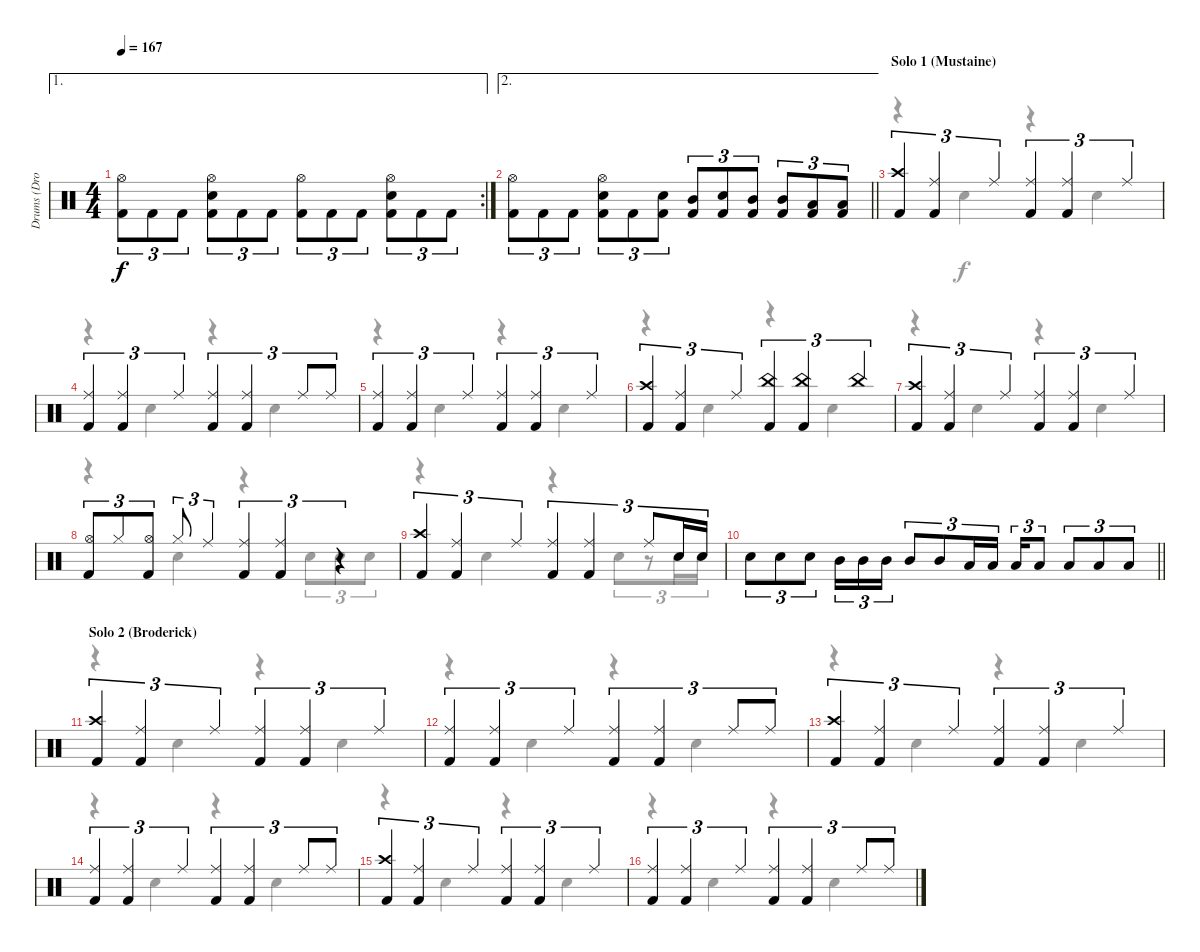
\track ("Drums (Drover)" "Drums (Dro") {instrument percussion}
\staff {score}
\articulation defaults
\voice
\ae 1
\rc 2
\ts (4 4)
\tempo 167
\clef neutral
\ks c
("Hi-Hat (open)" "Kick (hit) 2").8{tu (3 2) dy f} "Kick (hit) 2".8{tu (3 2)} "Kick (hit) 2".8{tu (3 2)} ("Hi-Hat (open)" "Electric Snare (hit)" "Kick (hit) 2").8{tu (3 2)} "Kick (hit) 2".8{tu (3 2)} "Kick (hit) 2".8{tu (3 2)} ("Hi-Hat (open)" "Kick (hit) 2").8{tu (3 2)} "Kick (hit) 2".8{tu (3 2)} "Kick (hit) 2".8{tu (3 2)} ("Hi-Hat (open)" "Electric Snare (hit)" "Kick (hit) 2").8{tu (3 2)} "Kick (hit) 2".8{tu (3 2)} "Kick (hit) 2".8{tu (3 2)} |
\ae 2
\barLineRight lightlight
("Hi-Hat (open)" "Kick (hit) 2").8{tu (3 2)} "Kick (hit) 2".8{tu (3 2)} "Kick (hit) 2".8{tu (3 2)} ("Hi-Hat (open)" "Electric Snare (hit)" "Kick (hit) 2").8{tu (3 2)} "Kick (hit) 2".8{tu (3 2)} ("Electric Snare (hit)" "Kick (hit) 2").8{tu (3 2)} ("Mid Tom (hit)" "Kick (hit) 2").8{tu (3 2)} ("Electric Snare (hit)" "Kick (hit) 2").8{tu (3 2)} ("Mid Tom (hit)" "Kick (hit) 2").8{tu (3 2)} ("Mid Tom (hit)" "Kick (hit) 2").8{tu (3 2)} ("Low Tom (hit)" "Kick (hit) 2").8{tu (3 2)} ("Low Tom (hit)" "Kick (hit) 2").8{tu (3 2)} |
\section ("" "Solo 1 (Mustaine)")
("Crash high (hit)" "Kick (hit) 2").4{tu (3 2)} ("Ride (middle)" "Kick (hit) 2").4{tu (3 2)} "Ride (middle)".4{tu (3 2)} ("Ride (middle)" "Kick (hit) 2").4{tu (3 2)} ("Ride (middle)" "Kick (hit) 2").4{tu (3 2)} "Ride (middle)".4{tu (3 2)} |
("Ride (middle)" "Kick (hit) 2").4{tu (3 2)} ("Ride (middle)" "Kick (hit) 2").4{tu (3 2)} "Ride (middle)".4{tu (3 2)} ("Ride (middle)" "Kick (hit) 2").4{tu (3 2)} ("Ride (middle)" "Kick (hit) 2").4{tu (3 2)} "Ride (middle)".8{tu (3 2)} "Ride (middle)".8{tu (3 2)} |
("Ride (middle)" "Kick (hit) 2").4{tu (3 2)} ("Ride (middle)" "Kick (hit) 2").4{tu (3 2)} "Ride (middle)".4{tu (3 2)} ("Ride (middle)" "Kick (hit) 2").4{tu (3 2)} ("Ride (middle)" "Kick (hit) 2").4{tu (3 2)} "Ride (middle)".4{tu (3 2)} |
("Crash high (hit)" "Kick (hit) 2").4{tu (3 2)} ("Ride (middle)" "Kick (hit) 2").4{tu (3 2)} "Ride (middle)".4{tu (3 2)} ("China (hit)" "Kick (hit) 2").4{tu (3 2)} ("China (hit)" "Kick (hit) 2").4{tu (3 2)} "China (hit)".4{tu (3 2)} |
("Crash high (hit)" "Kick (hit) 2").4{tu (3 2)} ("Ride (middle)" "Kick (hit) 2").4{tu (3 2)} "Ride (middle)".4{tu (3 2)} ("Ride (middle)" "Kick (hit) 2").4{tu (3 2)} ("Ride (middle)" "Kick (hit) 2").4{tu (3 2)} "Ride (middle)".4{tu (3 2)} |
("Hi-Hat (open)" "Kick (hit) 2").8{tu (3 2)} "Hi-Hat (closed)".8{tu (3 2)} ("Hi-Hat (open)" "Kick (hit) 2").8{tu (3 2)} "Hi-Hat (closed)".8{tu (3 2)} "Ride (middle)".4{tu (3 2)} ("Ride (middle)" "Kick (hit) 2").4{tu (3 2)} ("Ride (middle)" "Kick (hit) 2").4{tu (3 2)} r.4{tu (3 2)} |
("Crash high (hit)" "Kick (hit) 2").4{tu (3 2)} ("Ride (middle)" "Kick (hit) 2").4{tu (3 2)} "Ride (middle)".4{tu (3 2)} ("Ride (middle)" "Kick (hit) 2").4{tu (3 2)} ("Ride (middle)" "Kick (hit) 2").4{tu (3 2)} "Ride (middle)".8{tu (3 2)} "Electric Snare (hit)".16{tu (3 2)} "Electric Snare (hit)".16{tu (3 2)} |
\barLineRight lightlight "Electric Snare (hit)".8{tu (3 2)} "Electric Snare (hit)".8{tu (3 2)} "Electric Snare (hit)".8{tu (3 2)} "Mid Tom (hit)".16{tu (3 2)} "Mid Tom (hit)".16{tu (3 2)} "Mid Tom (hit)".16{tu (3 2)} "Mid Tom (hit)".8{tu (3 2)} "Mid Tom (hit)".8{tu (3 2)} "Low Tom (hit)".16{tu (3 2)} "Low Tom (hit)".16{tu (3 2) beam splitsecondary} "Low Tom (hit)".16{tu (3 2)} "Low Tom (hit)".8{tu (3 2)} "Low Tom (hit)".8{tu (3 2)} "Low Tom (hit)".8{tu (3 2)} "Low Tom (hit)".8{tu (3 2)}
|
\section ("" "Solo 2 (Broderick)")
("Crash high (hit)" "Kick (hit) 2").4{tu (3 2)} ("Ride (middle)" "Kick (hit) 2").4{tu (3 2)} "Ride (middle)".4{tu (3 2)} ("Ride (middle)" "Kick (hit) 2").4{tu (3 2)} ("Ride (middle)" "Kick (hit) 2").4{tu (3 2)} "Ride (middle)".4{tu (3 2)} |
("Ride (middle)" "Kick (hit) 2").4{tu (3 2)} ("Ride (middle)" "Kick (hit) 2").4{tu (3 2)} "Ride (middle)".4{tu (3 2)} ("Ride (middle)" "Kick (hit) 2").4{tu (3 2)} ("Ride (middle)" "Kick (hit) 2").4{tu (3 2)} "Ride (middle)".8{tu (3 2)} "Ride (middle)".8{tu (3 2)} |
("Crash high (hit)" "Kick (hit) 2").4{tu (3 2)} ("Ride (middle)" "Kick (hit) 2").4{tu (3 2)} "Ride (middle)".4{tu (3 2)} ("Ride (middle)" "Kick (hit) 2").4{tu (3 2)} ("Ride (middle)" "Kick (hit) 2").4{tu (3 2)} "Ride (middle)".4{tu (3 2)} |
("Ride (middle)" "Kick (hit) 2").4{tu (3 2)} ("Ride (middle)" "Kick (hit) 2").4{tu (3 2)} "Ride (middle)".4{tu (3 2)} ("Ride (middle)" "Kick (hit) 2").4{tu (3 2)} ("Ride (middle)" "Kick (hit) 2").4{tu (3 2)} "Ride (middle)".8{tu (3 2)} "Ride (middle)".8{tu (3 2)} |
("Crash high (hit)" "Kick (hit) 2").4{tu (3 2)} ("Ride (middle)" "Kick (hit) 2").4{tu (3 2)} "Ride (middle)".4{tu (3 2)} ("Ride (middle)" "Kick (hit) 2").4{tu (3 2)} ("Ride (middle)" "Kick (hit) 2").4{tu (3 2)} "Ride (middle)".4{tu (3 2)} |
("Ride (middle)" "Kick (hit) 2").4{tu (3 2)} ("Ride (middle)" "Kick (hit) 2").4{tu (3 2)} "Ride (middle)".4{tu (3 2)} ("Ride (middle)" "Kick (hit) 2").4{tu (3 2)} ("Ride (middle)" "Kick (hit) 2").4{tu (3 2)} "Ride (middle)".8{tu (3 2)} "Ride (middle)".8{tu (3 2)}
\voice
\clef neutral
\ottava regular
\simile none
\ks c
|
\barLineRight lightlight
|
r.4 "Electric Snare (hit)".4 r.4 "Electric Snare (hit)".4 |
r.4 "Electric Snare (hit)".4 r.4 "Electric Snare (hit)".4 |
r.4 "Electric Snare (hit)".4 r.4 "Electric Snare (hit)".4 |
r.4 "Electric Snare (hit)".4 r.4 "Electric Snare (hit)".4 |
r.4 "Electric Snare (hit)".4 r.4 "Electric Snare (hit)".4 |
r.4 "Electric Snare (hit)".4 r.4 "Electric Snare (hit)".8{tu (3 2)} "Electric Snare (hit)".8{tu (3 2)} "Electric Snare (hit)".8{tu (3 2)} |
r.4 "Electric Snare (hit)".4 r.4 "Electric Snare (hit)".8{tu (3 2)} r.8{tu (3 2)} "Electric Snare (hit)".16{tu (3 2)} "Electric Snare (hit)".16{tu (3 2)} |
\barLineRight lightlight
|
r.4 "Electric Snare (hit)".4 r.4 "Electric Snare (hit)".4 |
r.4 "Electric Snare (hit)".4 r.4 "Electric Snare (hit)".4 |
r.4 "Electric Snare (hit)".4 r.4 "Electric Snare (hit)".4 |
r.4 "Electric Snare (hit)".4 r.4 "Electric Snare (hit)".4 |
r.4 "Electric Snare (hit)".4 r.4 "Electric Snare (hit)".4 |
r.4 "Electric Snare (hit)".4 r.4 "Electric Snare (hit)".4
